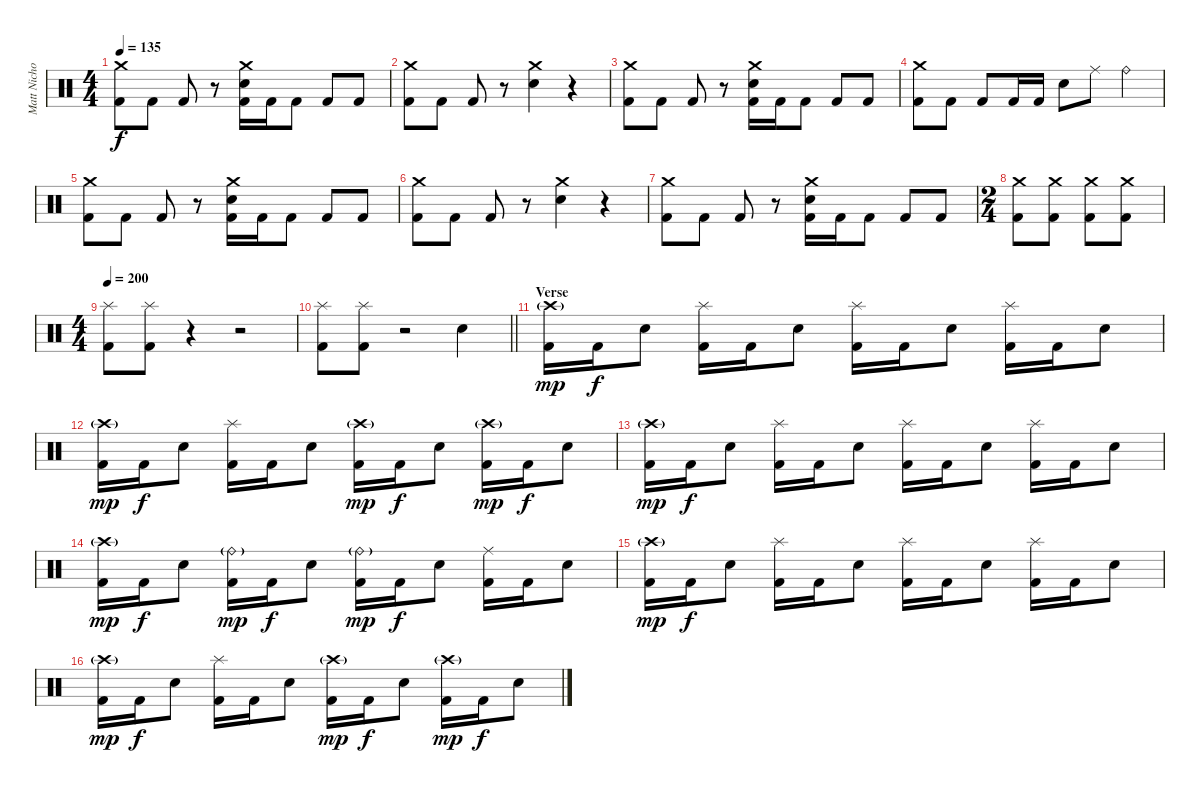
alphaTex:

\track ("Matt Nicholls" "Matt Nicho") {instrument percussion}
\staff {score}
\articulation defaults
\ts (4 4)
\tempo 135
\clef neutral
\ks c
("Crash medium (hit)" "Kick (hit) 2").8{dy f} "Kick (hit) 2".8 "Kick (hit) 2".8 r.8 ("Crash medium (hit)" "Snare (hit) 2" "Kick (hit) 2").16 "Kick (hit) 2".16 "Kick (hit) 2".8 "Kick (hit) 2".8 "Kick (hit) 2".8 |
("Crash medium (hit)" "Kick (hit) 2").8 "Kick (hit) 2".8 "Kick (hit) 2".8 r.8 ("Crash medium (hit)" "Snare (hit) 2").4 r.4 |
("Crash medium (hit)" "Kick (hit) 2").8 "Kick (hit) 2".8 "Kick (hit) 2".8 r.8 ("Crash medium (hit)" "Snare (hit) 2" "Kick (hit) 2").16 "Kick (hit) 2".16 "Kick (hit) 2".8 "Kick (hit) 2".8 "Kick (hit) 2".8 |
("Crash medium (hit)" "Kick (hit) 2").8 "Kick (hit) 2".8 "Kick (hit) 2".8 "Kick (hit) 2".16 "Kick (hit) 2".16 "Snare (hit) 2".8 "Ride (middle)".8 "Ride (bell)".4 |
("Crash medium (hit)" "Kick (hit) 2").8 "Kick (hit) 2".8 "Kick (hit) 2".8 r.8 ("Crash medium (hit)" "Snare (hit) 2" "Kick (hit) 2").16 "Kick (hit) 2".16 "Kick (hit) 2".8 "Kick (hit) 2".8 "Kick (hit) 2".8 |
("Crash medium (hit)" "Kick (hit) 2").8 "Kick (hit) 2".8 "Kick (hit) 2".8 r.8 ("Crash medium (hit)" "Snare (hit) 2").4 r.4 |
("Crash medium (hit)" "Kick (hit) 2").8 "Kick (hit) 2".8 "Kick (hit) 2".8 r.8 ("Crash medium (hit)" "Snare (hit) 2" "Kick (hit) 2").16 "Kick (hit) 2".16 "Kick (hit) 2".8 "Kick (hit) 2".8 "Kick (hit) 2".8 |
\ts (2 4)
("Crash medium (hit)" "Kick (hit) 2").8 ("Crash medium (hit)" "Kick (hit) 2").8 ("Crash medium (hit)" "Kick (hit) 2").8 ("Crash medium (hit)" "Kick (hit) 2").8 |
\ts (4 4)
\tempo 200
("Splash (hit)" "Kick (hit) 2").8 ("Splash (hit)" "Kick (hit) 2").8 r.4 r.2 |
\barLineRight lightlight
("Splash (hit)" "Kick (hit) 2").8 ("Splash (hit)" "Kick (hit) 2").8 r.2 "Snare (hit) 2".4 |
\section ("" "Verse")
("Crash high (hit)"{g} "Kick (hit) 2").16{dy mp} "Kick (hit) 2".16{dy f} "Snare (hit) 2".8 ("Splash (hit)" "Kick (hit) 2").16 "Kick (hit) 2".16 "Snare (hit) 2".8 ("Splash (hit)" "Kick (hit) 2").16 "Kick (hit) 2".16 "Snare (hit) 2".8 ("Splash (hit)" "Kick (hit) 2").16 "Kick (hit) 2".16 "Snare (hit) 2".8 |
("Crash high (hit)"{g} "Kick (hit) 2").16{dy mp} "Kick (hit) 2".16{dy f} "Snare (hit) 2".8 ("Splash (hit)" "Kick (hit) 2").16 "Kick (hit) 2".16 "Snare (hit) 2".8 ("Crash high (hit)"{g} "Kick (hit) 2").16{dy mp} "Kick (hit) 2".16{dy f} "Snare (hit) 2".8 ("Crash high (hit)"{g} "Kick (hit) 2").16{dy mp} "Kick (hit) 2".16{dy f} "Snare (hit) 2".8 |
("Crash high (hit)"{g} "Kick (hit) 2").16{dy mp} "Kick (hit) 2".16{dy f} "Snare (hit) 2".8 ("Splash (hit)" "Kick (hit) 2").16 "Kick (hit) 2".16 "Snare (hit) 2".8 ("Splash (hit)" "Kick (hit) 2").16 "Kick (hit) 2".16 "Snare (hit) 2".8 ("Splash (hit)" "Kick (hit) 2").16 "Kick (hit) 2".16 "Snare (hit) 2".8 |
("Crash high (hit)"{g} "Kick (hit) 2").16{dy mp} "Kick (hit) 2".16{dy f} "Snare (hit) 2".8 ("Ride (bell)"{g} "Kick (hit) 2").16{dy mp} "Kick (hit) 2".16{dy f} "Snare (hit) 2".8 ("Ride (bell)"{g} "Kick (hit) 2").16{dy mp} "Kick (hit) 2".16{dy f} "Snare (hit) 2".8 ("Ride (middle)" "Kick (hit) 2").16 "Kick (hit) 2".16 "Snare (hit) 2".8 |
("Crash high (hit)"{g} "Kick (hit) 2").16{dy mp} "Kick (hit) 2".16{dy f} "Snare (hit) 2".8 ("Splash (hit)" "Kick (hit) 2").16 "Kick (hit) 2".16 "Snare (hit) 2".8 ("Splash (hit)" "Kick (hit) 2").16 "Kick (hit) 2".16 "Snare (hit) 2".8 ("Splash (hit)" "Kick (hit) 2").16 "Kick (hit) 2".16 "Snare (hit) 2".8 |
("Crash high (hit)"{g} "Kick (hit) 2").16{dy mp} "Kick (hit) 2".16{dy f} "Snare (hit) 2".8 ("Splash (hit)" "Kick (hit) 2").16 "Kick (hit) 2".16 "Snare (hit) 2".8 ("Crash high (hit)"{g} "Kick (hit) 2").16{dy mp} "Kick (hit) 2".16{dy f} "Snare (hit) 2".8 ("Crash high (hit)"{g} "Kick (hit) 2").16{dy mp} "Kick (hit) 2".16{dy f} "Snare (hit) 2".8
